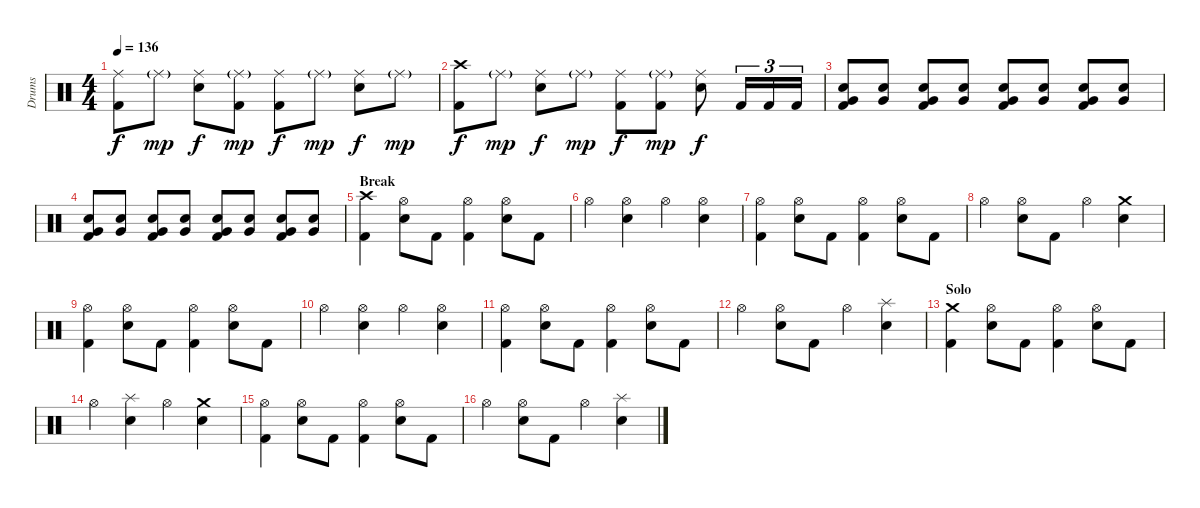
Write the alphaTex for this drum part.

\track ("Drums" "Drums") {instrument percussion}
\staff {score}
\articulation defaults
\ts (4 4)
\tempo 136
\clef neutral
\ks c
("Ride (middle)" "Kick (hit) 2").8{dy f} "Ride (middle)"{g}.8{dy mp} ("Ride (middle)" "Snare (hit) 2").8{dy f} ("Ride (middle)"{g} "Kick (hit) 2").8{dy mp} ("Ride (middle)" "Kick (hit) 2").8{dy f} "Ride (middle)"{g}.8{dy mp} ("Ride (middle)" "Snare (hit) 2").8{dy f} "Ride (middle)"{g}.8{dy mp} |
("Crash high (hit)" "Kick (hit) 2").8{dy f} "Ride (middle)"{g}.8{dy mp} ("Ride (middle)" "Snare (hit) 2").8{dy f} "Ride (middle)"{g}.8{dy mp} ("Ride (middle)" "Kick (hit) 2").8{dy f} ("Ride (middle)"{g} "Kick (hit) 2").8{dy mp} ("Ride (middle)" "Snare (hit) 2").8{dy f} "Kick (hit) 2".16{tu (3 2)} "Kick (hit) 2".16{tu (3 2)} "Kick (hit) 2".16{tu (3 2)} |
("Very Low Tom (hit)" "Snare (hit) 2" "Kick (hit) 2").8 ("Very Low Tom (hit)" "Snare (hit) 2").8 ("Very Low Tom (hit)" "Snare (hit) 2" "Kick (hit) 2").8 ("Very Low Tom (hit)" "Snare (hit) 2").8 ("Very Low Tom (hit)" "Snare (hit) 2" "Kick (hit) 2").8 ("Very Low Tom (hit)" "Snare (hit) 2").8 ("Very Low Tom (hit)" "Snare (hit) 2" "Kick (hit) 2").8 ("Very Low Tom (hit)" "Snare (hit) 2").8 |
("Very Low Tom (hit)" "Snare (hit) 2" "Kick (hit) 2").8 ("Very Low Tom (hit)" "Snare (hit) 2").8 ("Very Low Tom (hit)" "Snare (hit) 2" "Kick (hit) 2").8 ("Very Low Tom (hit)" "Snare (hit) 2").8 ("Very Low Tom (hit)" "Snare (hit) 2" "Kick (hit) 2").8 ("Very Low Tom (hit)" "Snare (hit) 2").8 ("Very Low Tom (hit)" "Snare (hit) 2" "Kick (hit) 2").8 ("Very Low Tom (hit)" "Snare (hit) 2").8 |
\section ("" "Break")
("Crash high (hit)" "Kick (hit) 2").4 ("Hi-Hat (open)" "Snare (hit) 2").8 "Kick (hit) 2".8 ("Hi-Hat (open)" "Kick (hit) 2").4 ("Hi-Hat (open)" "Snare (hit) 2").8 "Kick (hit) 2".8 |
"Hi-Hat (open)".4 ("Hi-Hat (open)" "Snare (hit) 2").4 "Hi-Hat (open)".4 ("Hi-Hat (open)" "Snare (hit) 2").4 |
("Hi-Hat (open)" "Kick (hit) 2").4 ("Hi-Hat (open)" "Snare (hit) 2").8 "Kick (hit) 2".8 ("Hi-Hat (open)" "Kick (hit) 2").4 ("Hi-Hat (open)" "Snare (hit) 2").8 "Kick (hit) 2".8 |
"Hi-Hat (open)".4 ("Hi-Hat (open)" "Snare (hit) 2").8 "Kick (hit) 2".8 "Hi-Hat (open)".4 ("Crash medium (hit)" "Snare (hit) 2").4 |
("Hi-Hat (open)" "Kick (hit) 2").4 ("Hi-Hat (open)" "Snare (hit) 2").8 "Kick (hit) 2".8 ("Hi-Hat (open)" "Kick (hit) 2").4 ("Hi-Hat (open)" "Snare (hit) 2").8 "Kick (hit) 2".8 |
"Hi-Hat (open)".4 ("Hi-Hat (open)" "Snare (hit) 2").4 "Hi-Hat (open)".4 ("Hi-Hat (open)" "Snare (hit) 2").4 |
("Hi-Hat (open)" "Kick (hit) 2").4 ("Hi-Hat (open)" "Snare (hit) 2").8 "Kick (hit) 2".8 ("Hi-Hat (open)" "Kick (hit) 2").4 ("Hi-Hat (open)" "Snare (hit) 2").8 "Kick (hit) 2".8 |
"Hi-Hat (open)".4 ("Hi-Hat (open)" "Snare (hit) 2").8 "Kick (hit) 2".8 "Hi-Hat (open)".4 ("Splash (hit)" "Snare (hit) 2").4 |
\section ("" "Solo")
("Crash medium (hit)" "Kick (hit) 2").4 ("Hi-Hat (open)" "Snare (hit) 2").8 "Kick (hit) 2".8 ("Hi-Hat (open)" "Kick (hit) 2").4 ("Hi-Hat (open)" "Snare (hit) 2").8 "Kick (hit) 2".8 |
"Hi-Hat (open)".4 ("Splash (hit)" "Snare (hit) 2").4 "Hi-Hat (open)".4 ("Crash medium (hit)" "Snare (hit) 2").4 |
("Hi-Hat (open)" "Kick (hit) 2").4 ("Hi-Hat (open)" "Snare (hit) 2").8 "Kick (hit) 2".8 ("Hi-Hat (open)" "Kick (hit) 2").4 ("Hi-Hat (open)" "Snare (hit) 2").8 "Kick (hit) 2".8 |
"Hi-Hat (open)".4 ("Hi-Hat (open)" "Snare (hit) 2").8 "Kick (hit) 2".8 "Hi-Hat (open)".4 ("Splash (hit)" "Snare (hit) 2").4
